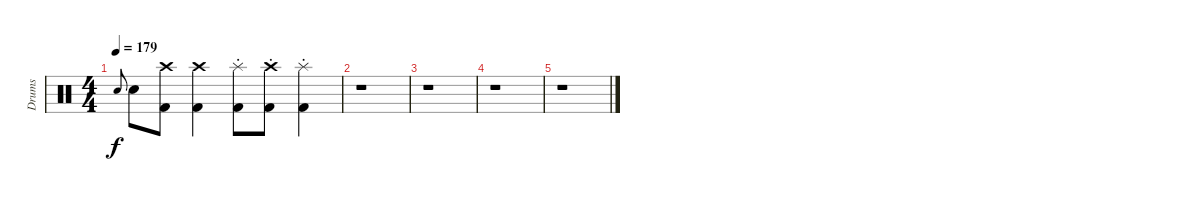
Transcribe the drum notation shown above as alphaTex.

\track ("Drums" "Drums") {instrument percussion}
\staff {score}
\articulation defaults
\ts (4 4)
\tempo 179
\clef neutral
\ks c "Snare (hit)".8{gr onbeat dy f} "Snare (hit) 2".8
("Kick (hit) 2" "Crash high (hit)").8 ("Kick (hit) 2" "Crash high (hit)").4 ("Kick (hit) 2" "Splash (choke)").8 ("Kick (hit) 2" "Crash high (choke)").8 ("Kick (hit) 2" "Splash (choke)").4 |
r.1 |
r.1 |
r.1 |
r.1
